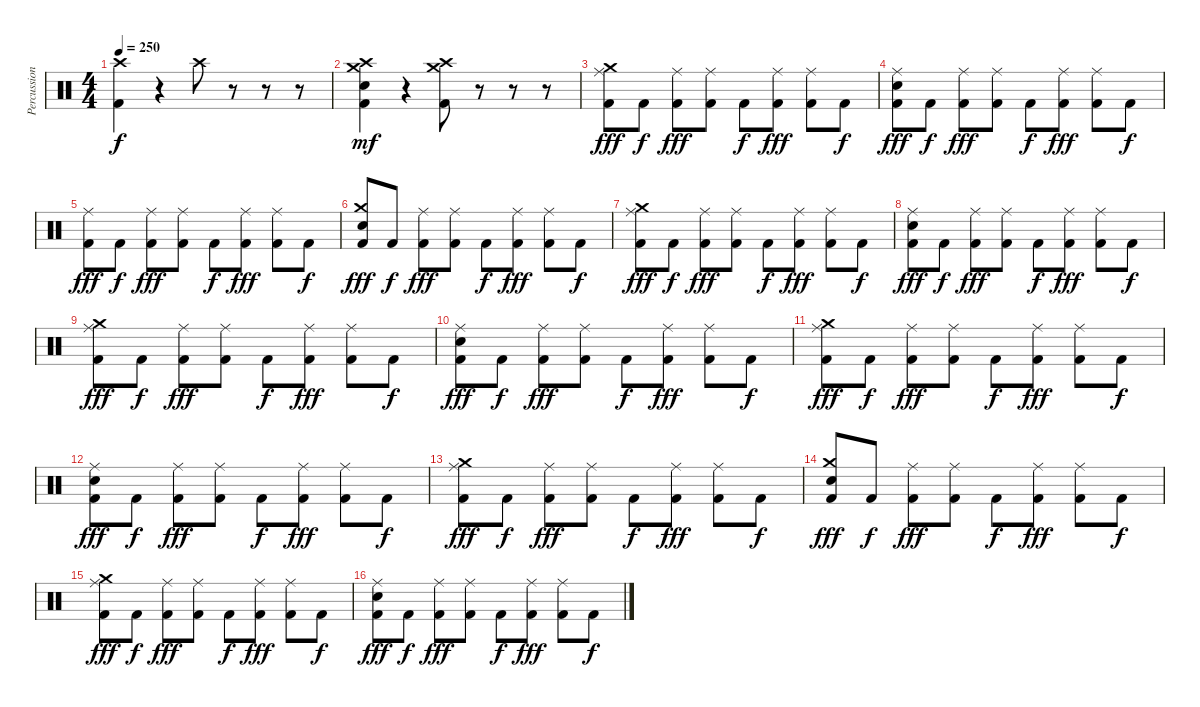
\track ("Percussions" "Percussion") {instrument percussion}
\staff {score}
\articulation defaults
\ts (4 4)
\tempo 250
\clef neutral
\ks c
("Crash high (hit)" "Kick (hit) 2").4{dy f} r.4 "Crash high (hit)".8 r.8 r.8 r.8 |
("Crash medium (hit)" "Crash high (hit)" "Electric Snare (hit)" "Kick (hit) 2").4{dy mf} r.4 ("Crash medium (hit)" "Crash high (hit)" "Kick (hit) 2").8 r.8 r.8 r.8 |
("Ride (middle)" "Crash medium (hit)" "Kick (hit) 2").8{dy fff} "Kick (hit) 2".8{dy f} ("Ride (middle)" "Kick (hit) 2").8{dy fff} ("Ride (middle)" "Kick (hit) 2").8 "Kick (hit) 2".8{dy f} ("Ride (middle)" "Kick (hit) 2").8{dy fff} ("Ride (middle)" "Kick (hit) 2").8 "Kick (hit) 2".8{dy f} |
("Ride (middle)" "Electric Snare (hit)" "Kick (hit) 2").8{dy fff} "Kick (hit) 2".8{dy f} ("Ride (middle)" "Kick (hit) 2").8{dy fff} ("Ride (middle)" "Kick (hit) 2").8 "Kick (hit) 2".8{dy f} ("Ride (middle)" "Kick (hit) 2").8{dy fff} ("Ride (middle)" "Kick (hit) 2").8 "Kick (hit) 2".8{dy f} |
("Ride (middle)" "Kick (hit) 2").8{dy fff} "Kick (hit) 2".8{dy f} ("Ride (middle)" "Kick (hit) 2").8{dy fff} ("Ride (middle)" "Kick (hit) 2").8 "Kick (hit) 2".8{dy f} ("Ride (middle)" "Kick (hit) 2").8{dy fff} ("Ride (middle)" "Kick (hit) 2").8 "Kick (hit) 2".8{dy f} |
("Crash medium (hit)" "Electric Snare (hit)" "Kick (hit) 2").8{dy fff} "Kick (hit) 2".8{dy f} ("Ride (middle)" "Kick (hit) 2").8{dy fff} ("Ride (middle)" "Kick (hit) 2").8 "Kick (hit) 2".8{dy f} ("Ride (middle)" "Kick (hit) 2").8{dy fff} ("Ride (middle)" "Kick (hit) 2").8 "Kick (hit) 2".8{dy f} |
("Ride (middle)" "Crash medium (hit)" "Kick (hit) 2").8{dy fff} "Kick (hit) 2".8{dy f} ("Ride (middle)" "Kick (hit) 2").8{dy fff} ("Ride (middle)" "Kick (hit) 2").8 "Kick (hit) 2".8{dy f} ("Ride (middle)" "Kick (hit) 2").8{dy fff} ("Ride (middle)" "Kick (hit) 2").8 "Kick (hit) 2".8{dy f} |
("Ride (middle)" "Electric Snare (hit)" "Kick (hit) 2").8{dy fff} "Kick (hit) 2".8{dy f} ("Ride (middle)" "Kick (hit) 2").8{dy fff} ("Ride (middle)" "Kick (hit) 2").8 "Kick (hit) 2".8{dy f} ("Ride (middle)" "Kick (hit) 2").8{dy fff} ("Ride (middle)" "Kick (hit) 2").8 "Kick (hit) 2".8{dy f} |
("Ride (middle)" "Crash medium (hit)" "Kick (hit) 2").8{dy fff} "Kick (hit) 2".8{dy f} ("Ride (middle)" "Kick (hit) 2").8{dy fff} ("Ride (middle)" "Kick (hit) 2").8 "Kick (hit) 2".8{dy f} ("Ride (middle)" "Kick (hit) 2").8{dy fff} ("Ride (middle)" "Kick (hit) 2").8 "Kick (hit) 2".8{dy f} |
("Ride (middle)" "Electric Snare (hit)" "Kick (hit) 2").8{dy fff} "Kick (hit) 2".8{dy f} ("Ride (middle)" "Kick (hit) 2").8{dy fff} ("Ride (middle)" "Kick (hit) 2").8 "Kick (hit) 2".8{dy f} ("Ride (middle)" "Kick (hit) 2").8{dy fff} ("Ride (middle)" "Kick (hit) 2").8 "Kick (hit) 2".8{dy f} |
("Ride (middle)" "Crash medium (hit)" "Kick (hit) 2").8{dy fff} "Kick (hit) 2".8{dy f} ("Ride (middle)" "Kick (hit) 2").8{dy fff} ("Ride (middle)" "Kick (hit) 2").8 "Kick (hit) 2".8{dy f} ("Ride (middle)" "Kick (hit) 2").8{dy fff} ("Ride (middle)" "Kick (hit) 2").8 "Kick (hit) 2".8{dy f} |
("Ride (middle)" "Electric Snare (hit)" "Kick (hit) 2").8{dy fff} "Kick (hit) 2".8{dy f} ("Ride (middle)" "Kick (hit) 2").8{dy fff} ("Ride (middle)" "Kick (hit) 2").8 "Kick (hit) 2".8{dy f} ("Ride (middle)" "Kick (hit) 2").8{dy fff} ("Ride (middle)" "Kick (hit) 2").8 "Kick (hit) 2".8{dy f} |
("Ride (middle)" "Crash medium (hit)" "Kick (hit) 2").8{dy fff} "Kick (hit) 2".8{dy f} ("Ride (middle)" "Kick (hit) 2").8{dy fff} ("Ride (middle)" "Kick (hit) 2").8 "Kick (hit) 2".8{dy f} ("Ride (middle)" "Kick (hit) 2").8{dy fff} ("Ride (middle)" "Kick (hit) 2").8 "Kick (hit) 2".8{dy f} |
("Crash medium (hit)" "Electric Snare (hit)" "Kick (hit) 2").8{dy fff} "Kick (hit) 2".8{dy f} ("Ride (middle)" "Kick (hit) 2").8{dy fff} ("Ride (middle)" "Kick (hit) 2").8 "Kick (hit) 2".8{dy f} ("Ride (middle)" "Kick (hit) 2").8{dy fff} ("Ride (middle)" "Kick (hit) 2").8 "Kick (hit) 2".8{dy f} |
("Ride (middle)" "Crash medium (hit)" "Kick (hit) 2").8{dy fff} "Kick (hit) 2".8{dy f} ("Ride (middle)" "Kick (hit) 2").8{dy fff} ("Ride (middle)" "Kick (hit) 2").8 "Kick (hit) 2".8{dy f} ("Ride (middle)" "Kick (hit) 2").8{dy fff} ("Ride (middle)" "Kick (hit) 2").8 "Kick (hit) 2".8{dy f} |
("Ride (middle)" "Electric Snare (hit)" "Kick (hit) 2").8{dy fff} "Kick (hit) 2".8{dy f} ("Ride (middle)" "Kick (hit) 2").8{dy fff} ("Ride (middle)" "Kick (hit) 2").8 "Kick (hit) 2".8{dy f} ("Ride (middle)" "Kick (hit) 2").8{dy fff} ("Ride (middle)" "Kick (hit) 2").8 "Kick (hit) 2".8{dy f}
